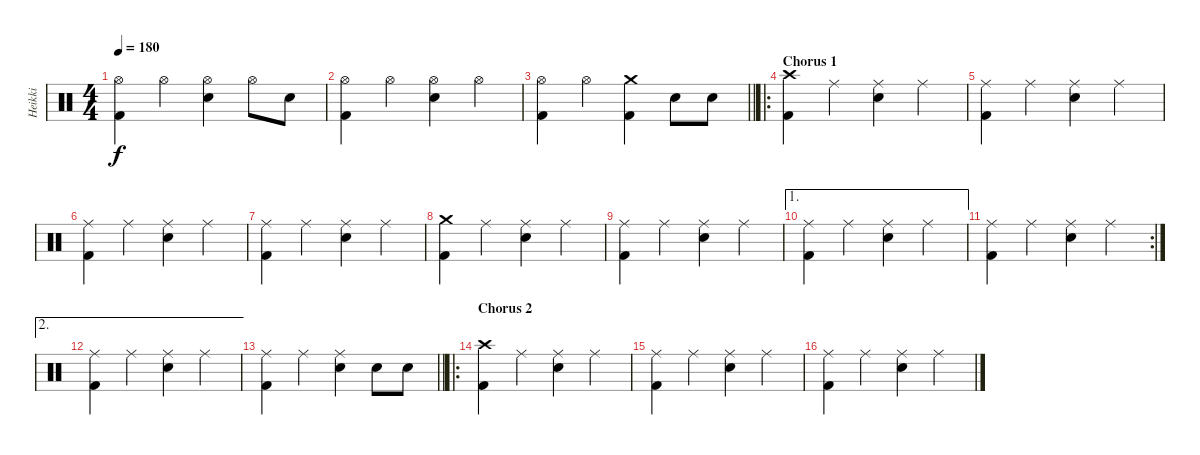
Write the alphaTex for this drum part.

\track ("Heikki" "Heikki") {instrument percussion}
\staff {score}
\articulation defaults
\ts (4 4)
\tempo 180
\clef neutral
\ks c
("Hi-Hat (open)" "Kick (hit) 2").4{dy f} "Hi-Hat (open)".4 ("Hi-Hat (open)" "Electric Snare (hit)").4 "Hi-Hat (open)".8 "Electric Snare (hit)".8 |
("Hi-Hat (open)" "Kick (hit) 2").4 "Hi-Hat (open)".4 ("Hi-Hat (open)" "Electric Snare (hit)").4 "Hi-Hat (open)".4 |
\barLineRight lightlight
("Hi-Hat (open)" "Kick (hit) 2").4 "Hi-Hat (open)".4 ("Crash medium (hit)" "Kick (hit) 2").4 "Electric Snare (hit)".8 "Electric Snare (hit)".8 |
\ro
\section ("" "Chorus 1")
("Crash high (hit)" "Kick (hit) 2").4 "Ride (middle)".4 ("Ride (middle)" "Electric Snare (hit)").4 "Ride (middle)".4 |
("Ride (middle)" "Kick (hit) 2").4 "Ride (middle)".4 ("Ride (middle)" "Electric Snare (hit)").4 "Ride (middle)".4 |
("Ride (middle)" "Kick (hit) 2").4 "Ride (middle)".4 ("Ride (middle)" "Electric Snare (hit)").4 "Ride (middle)".4 |
("Ride (middle)" "Kick (hit) 2").4 "Ride (middle)".4 ("Ride (middle)" "Electric Snare (hit)").4 "Ride (middle)".4 |
("Crash medium (hit)" "Kick (hit) 2").4 "Ride (middle)".4 ("Ride (middle)" "Electric Snare (hit)").4 "Ride (middle)".4 |
("Ride (middle)" "Kick (hit) 2").4 "Ride (middle)".4 ("Ride (middle)" "Electric Snare (hit)").4 "Ride (middle)".4 |
\ae 1
("Ride (middle)" "Kick (hit) 2").4 "Ride (middle)".4 ("Ride (middle)" "Electric Snare (hit)").4 "Ride (middle)".4 |
\rc 2
("Ride (middle)" "Kick (hit) 2").4 "Ride (middle)".4 ("Ride (middle)" "Electric Snare (hit)").4 "Ride (middle)".4 |
\ae 2
("Ride (middle)" "Kick (hit) 2").4 "Ride (middle)".4 ("Ride (middle)" "Electric Snare (hit)").4 "Ride (middle)".4 |
\barLineRight lightlight
("Ride (middle)" "Kick (hit) 2").4 "Ride (middle)".4 ("Ride (middle)" "Electric Snare (hit)").4 "Electric Snare (hit)".8 "Electric Snare (hit)".8 |
\ro
\section ("" "Chorus 2")
("Crash high (hit)" "Kick (hit) 2").4 "Ride (middle)".4 ("Ride (middle)" "Electric Snare (hit)").4 "Ride (middle)".4 |
("Ride (middle)" "Kick (hit) 2").4 "Ride (middle)".4 ("Ride (middle)" "Electric Snare (hit)").4 "Ride (middle)".4 |
("Ride (middle)" "Kick (hit) 2").4 "Ride (middle)".4 ("Ride (middle)" "Electric Snare (hit)").4 "Ride (middle)".4
